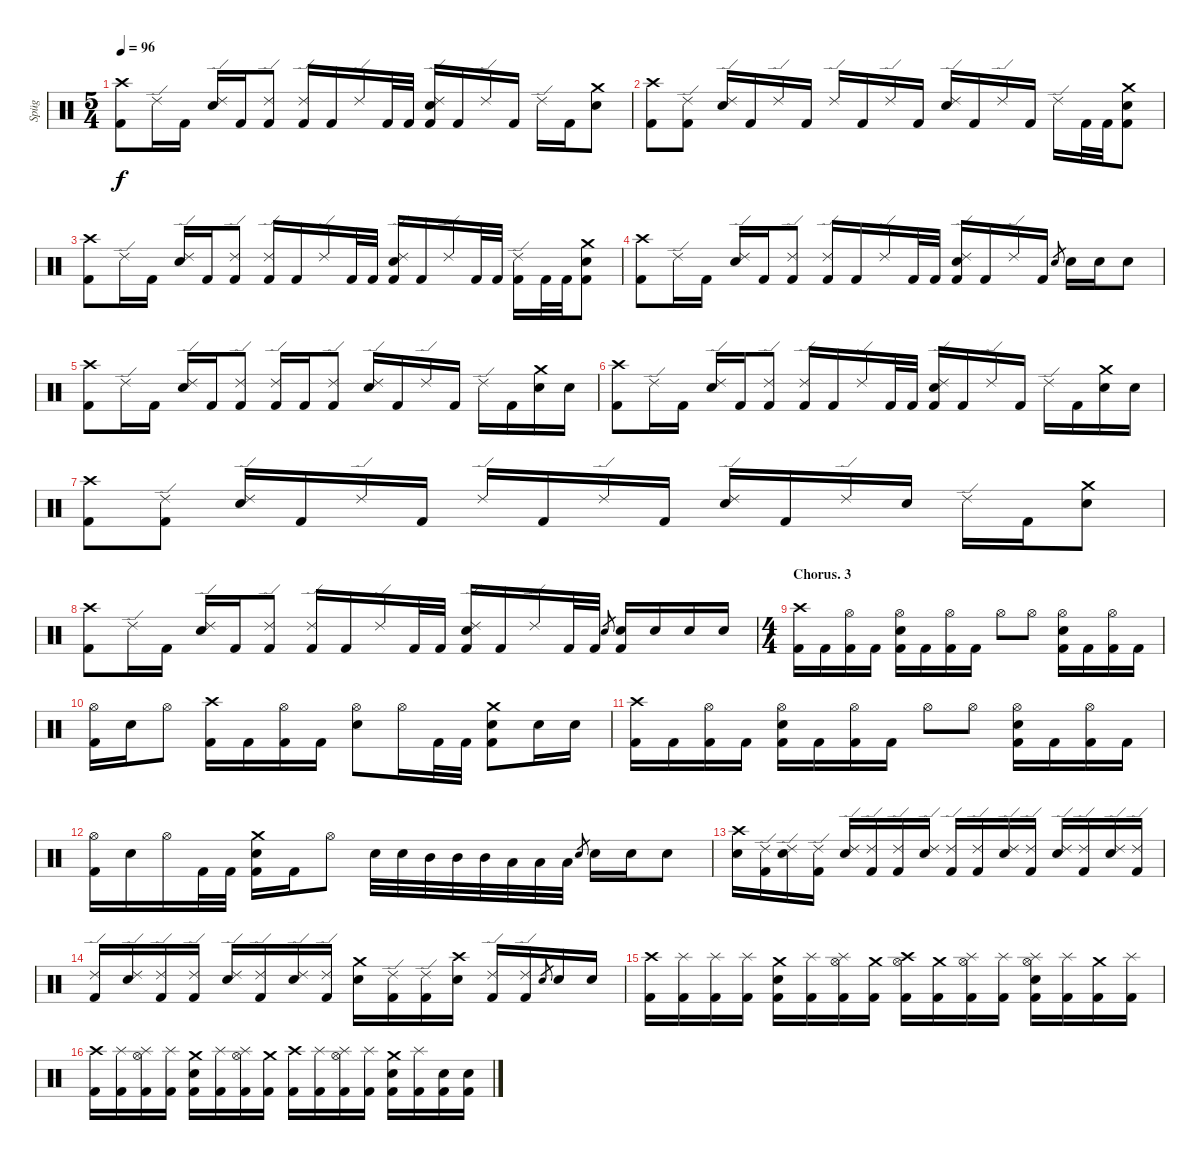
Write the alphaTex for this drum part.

\track ("Spüg" "Spüg") {instrument percussion}
\staff {score}
\articulation defaults
\ts (5 4)
\tempo 96
\clef neutral
\ks c
("Crash high (hit)" "Kick (hit) 2").8{dy f} "Ride (edge) 2".16 "Kick (hit) 2".16 ("Ride (edge) 2" "Electric Snare (hit)").16 "Kick (hit) 2".16 ("Ride (edge) 2" "Kick (hit) 2").8 ("Ride (edge) 2" "Kick (hit) 2").16 "Kick (hit) 2".16 "Ride (edge) 2".16 "Kick (hit) 2".32 "Kick (hit) 2".32 ("Ride (edge) 2" "Electric Snare (hit)" "Kick (hit) 2").16 "Kick (hit) 2".16 "Ride (edge) 2".16 "Kick (hit) 2".16 "Ride (edge) 2".16 "Kick (hit) 2".16 ("Crash medium (hit)" "Electric Snare (hit)").8 |
("Crash high (hit)" "Kick (hit) 2").8 ("Ride (edge) 2" "Kick (hit) 2").8 ("Ride (edge) 2" "Electric Snare (hit)").16 "Kick (hit) 2".16 "Ride (edge) 2".16 "Kick (hit) 2".16 "Ride (edge) 2".16 "Kick (hit) 2".16 "Ride (edge) 2".16 "Kick (hit) 2".16 ("Ride (edge) 2" "Electric Snare (hit)").16 "Kick (hit) 2".16 "Ride (edge) 2".16 "Kick (hit) 2".16 "Ride (edge) 2".16 "Kick (hit) 2".32 "Kick (hit) 2".32 ("Crash medium (hit)" "Electric Snare (hit)" "Kick (hit) 2").8 |
("Crash high (hit)" "Kick (hit) 2").8 "Ride (edge) 2".16 "Kick (hit) 2".16 ("Ride (edge) 2" "Electric Snare (hit)").16 "Kick (hit) 2".16 ("Ride (edge) 2" "Kick (hit) 2").8 ("Ride (edge) 2" "Kick (hit) 2").16 "Kick (hit) 2".16 "Ride (edge) 2".16 "Kick (hit) 2".32 "Kick (hit) 2".32 ("Ride (edge) 2" "Electric Snare (hit)" "Kick (hit) 2").16 "Kick (hit) 2".16 "Ride (edge) 2".16 "Kick (hit) 2".32 "Kick (hit) 2".32 ("Ride (edge) 2" "Kick (hit) 2").16 "Kick (hit) 2".32 "Kick (hit) 2".32 ("Crash medium (hit)" "Electric Snare (hit)" "Kick (hit) 2").8 |
("Crash high (hit)" "Kick (hit) 2").8 "Ride (edge) 2".16 "Kick (hit) 2".16 ("Ride (edge) 2" "Electric Snare (hit)").16 "Kick (hit) 2".16 ("Ride (edge) 2" "Kick (hit) 2").8 ("Ride (edge) 2" "Kick (hit) 2").16 "Kick (hit) 2".16 "Ride (edge) 2".16 "Kick (hit) 2".32 "Kick (hit) 2".32 ("Ride (edge) 2" "Electric Snare (hit)" "Kick (hit) 2").16 "Kick (hit) 2".16 "Ride (edge) 2".16 "Kick (hit) 2".16 "Electric Snare (hit)".8{gr} "Electric Snare (hit)".16 "Electric Snare (hit)".16 "Electric Snare (hit)".8 |
("Crash high (hit)" "Kick (hit) 2").8 "Ride (edge) 2".16 "Kick (hit) 2".16 ("Ride (edge) 2" "Electric Snare (hit)").16 "Kick (hit) 2".16 ("Ride (edge) 2" "Kick (hit) 2").8 ("Ride (edge) 2" "Kick (hit) 2").16 "Kick (hit) 2".16 ("Ride (edge) 2" "Kick (hit) 2").8 ("Ride (edge) 2" "Electric Snare (hit)").16 "Kick (hit) 2".16 "Ride (edge) 2".16 "Kick (hit) 2".16 "Ride (edge) 2".16 "Kick (hit) 2".16 ("Crash medium (hit)" "Electric Snare (hit)").16 "Electric Snare (hit)".16 |
("Crash high (hit)" "Kick (hit) 2").8 "Ride (edge) 2".16 "Kick (hit) 2".16 ("Ride (edge) 2" "Electric Snare (hit)").16 "Kick (hit) 2".16 ("Ride (edge) 2" "Kick (hit) 2").8 ("Ride (edge) 2" "Kick (hit) 2").16 "Kick (hit) 2".16 "Ride (edge) 2".16 "Kick (hit) 2".32 "Kick (hit) 2".32 ("Ride (edge) 2" "Electric Snare (hit)" "Kick (hit) 2").16 "Kick (hit) 2".16 "Ride (edge) 2".16 "Kick (hit) 2".16 "Ride (edge) 2".16 "Kick (hit) 2".16 ("Crash medium (hit)" "Electric Snare (hit)").16 "Electric Snare (hit)".16 |
("Crash high (hit)" "Kick (hit) 2").8 ("Ride (edge) 2" "Kick (hit) 2").8 ("Ride (edge) 2" "Electric Snare (hit)").16 "Kick (hit) 2".16 "Ride (edge) 2".16 "Kick (hit) 2".16 "Ride (edge) 2".16 "Kick (hit) 2".16 "Ride (edge) 2".16 "Kick (hit) 2".16 ("Ride (edge) 2" "Electric Snare (hit)").16 "Kick (hit) 2".16 "Ride (edge) 2".16 "Electric Snare (hit)".16 "Ride (edge) 2".16 "Kick (hit) 2".16 ("Crash medium (hit)" "Electric Snare (hit)").8 |
("Crash high (hit)" "Kick (hit) 2").8 "Ride (edge) 2".16 "Kick (hit) 2".16 ("Ride (edge) 2" "Electric Snare (hit)").16 "Kick (hit) 2".16 ("Ride (edge) 2" "Kick (hit) 2").8 ("Ride (edge) 2" "Kick (hit) 2").16 "Kick (hit) 2".16 "Ride (edge) 2".16 "Kick (hit) 2".32 "Kick (hit) 2".32 ("Ride (edge) 2" "Electric Snare (hit)" "Kick (hit) 2").16 "Kick (hit) 2".16 "Ride (edge) 2".16 "Kick (hit) 2".32 "Kick (hit) 2".32 "Electric Snare (hit)".8{gr} ("Electric Snare (hit)" "Kick (hit) 2").16 "Electric Snare (hit)".16 "Electric Snare (hit)".16 "Electric Snare (hit)".16 |
\ts (4 4)
\section ("" "Chorus. 3")
("Crash high (hit)" "Kick (hit) 2").16 "Kick (hit) 2".16 ("Hi-Hat (open)" "Kick (hit) 2").16 "Kick (hit) 2".16 ("Hi-Hat (open)" "Electric Snare (hit)" "Kick (hit) 2").16 "Kick (hit) 2".16 ("Hi-Hat (open)" "Kick (hit) 2").16 "Kick (hit) 2".16 "Hi-Hat (open)".8 "Hi-Hat (open)".8 ("Hi-Hat (open)" "Electric Snare (hit)" "Kick (hit) 2").16 "Kick (hit) 2".16 ("Hi-Hat (open)" "Kick (hit) 2").16 "Kick (hit) 2".16 |
("Hi-Hat (open)" "Kick (hit) 2").16 "Electric Snare (hit)".16 "Hi-Hat (open)".8 ("Crash high (hit)" "Kick (hit) 2").16 "Kick (hit) 2".16 ("Hi-Hat (open)" "Kick (hit) 2").16 "Kick (hit) 2".16 ("Hi-Hat (open)" "Electric Snare (hit)").8 "Hi-Hat (open)".16 "Kick (hit) 2".32 "Kick (hit) 2".32 ("Crash medium (hit)" "Electric Snare (hit)" "Kick (hit) 2").8 "Electric Snare (hit)".16 "Electric Snare (hit)".16 |
("Crash high (hit)" "Kick (hit) 2").16 "Kick (hit) 2".16 ("Hi-Hat (open)" "Kick (hit) 2").16 "Kick (hit) 2".16 ("Hi-Hat (open)" "Electric Snare (hit)" "Kick (hit) 2").16 "Kick (hit) 2".16 ("Hi-Hat (open)" "Kick (hit) 2").16 "Kick (hit) 2".16 "Hi-Hat (open)".8 "Hi-Hat (open)".8 ("Hi-Hat (open)" "Electric Snare (hit)" "Kick (hit) 2").16 "Kick (hit) 2".16 ("Hi-Hat (open)" "Kick (hit) 2").16 "Kick (hit) 2".16 |
("Hi-Hat (open)" "Kick (hit) 2").16 "Electric Snare (hit)".16 "Hi-Hat (open)".16 "Kick (hit) 2".32 "Kick (hit) 2".32 ("Crash medium (hit)" "Electric Snare (hit)" "Kick (hit) 2").16 "Kick (hit) 2".16 "Hi-Hat (open)".8 "Electric Snare (hit)".32 "Electric Snare (hit)".32 "Mid Tom (hit)".32 "Mid Tom (hit)".32 "Mid Tom (hit)".32 "Low Floor Tom (hit)".32 "Low Floor Tom (hit)".32 "Low Floor Tom (hit)".32 "Electric Snare (hit)".8{gr} "Electric Snare (hit)".16 "Electric Snare (hit)".16 "Electric Snare (hit)".8 |
("Crash high (hit)" "Electric Snare (hit)").16 ("Ride (edge) 2" "Kick (hit) 2").16 ("Ride (edge) 2" "Electric Snare (hit)").16 ("Ride (edge) 2" "Kick (hit) 2").16 ("Ride (edge) 2" "Electric Snare (hit)").16 ("Ride (edge) 2" "Kick (hit) 2").16 ("Ride (edge) 2" "Kick (hit) 2").16 ("Ride (edge) 2" "Electric Snare (hit)").16 ("Ride (edge) 2" "Kick (hit) 2").16 ("Ride (edge) 2" "Kick (hit) 2").16 ("Ride (edge) 2" "Electric Snare (hit)").16 ("Ride (edge) 2" "Kick (hit) 2").16 ("Ride (edge) 2" "Electric Snare (hit)").16 ("Ride (edge) 2" "Kick (hit) 2").16 ("Ride (edge) 2" "Electric Snare (hit)").16 ("Ride (edge) 2" "Kick (hit) 2").16 |
("Ride (edge) 2" "Kick (hit) 2").16 ("Ride (edge) 2" "Electric Snare (hit)").16 ("Ride (edge) 2" "Kick (hit) 2").16 ("Ride (edge) 2" "Kick (hit) 2").16 ("Ride (edge) 2" "Electric Snare (hit)").16 ("Ride (edge) 2" "Kick (hit) 2").16 ("Ride (edge) 2" "Electric Snare (hit)").16 ("Ride (edge) 2" "Kick (hit) 2").16 ("Crash medium (hit)" "Electric Snare (hit)").16 ("Ride (edge) 2" "Kick (hit) 2").16 ("Ride (edge) 2" "Kick (hit) 2").16 ("Crash high (hit)" "Electric Snare (hit)").16 ("Ride (edge) 2" "Kick (hit) 2").16 ("Ride (edge) 2" "Kick (hit) 2").16 "Electric Snare (hit)".8{gr} "Electric Snare (hit)".16 "Electric Snare (hit)".16 |
("Crash high (hit)" "Kick (hit) 2").16 ("Splash (hit)" "Kick (hit) 2").16 ("Splash (hit)" "Kick (hit) 2").16 ("Splash (hit)" "Kick (hit) 2").16 ("Crash medium (hit)" "Electric Snare (hit)" "Kick (hit) 2").16 ("Splash (hit)" "Kick (hit) 2").16 ("Hi-Hat (open)" "Splash (hit)" "Kick (hit) 2").16 ("Crash medium (hit)" "Kick (hit) 2").16 ("Crash high (hit)" "Hi-Hat (open)" "Kick (hit) 2").16 ("Crash medium (hit)" "Kick (hit) 2").16 ("Hi-Hat (open)" "Splash (hit)" "Kick (hit) 2").16 ("Splash (hit)" "Kick (hit) 2").16 ("Hi-Hat (open)" "Splash (hit)" "Electric Snare (hit)" "Kick (hit) 2").16 ("Splash (hit)" "Kick (hit) 2").16 ("Crash medium (hit)" "Kick (hit) 2").16 ("Splash (hit)" "Kick (hit) 2").16 |
("Crash high (hit)" "Kick (hit) 2").16 ("Splash (hit)" "Kick (hit) 2").16 ("Hi-Hat (open)" "Splash (hit)" "Kick (hit) 2").16 ("Splash (hit)" "Kick (hit) 2").16 ("Crash medium (hit)" "Electric Snare (hit)" "Kick (hit) 2").16 ("Splash (hit)" "Kick (hit) 2").16 ("Hi-Hat (open)" "Splash (hit)" "Kick (hit) 2").16 ("Crash medium (hit)" "Kick (hit) 2").16 ("Crash high (hit)" "Kick (hit) 2").16 ("Splash (hit)" "Kick (hit) 2").16 ("Hi-Hat (open)" "Splash (hit)" "Kick (hit) 2").16 ("Splash (hit)" "Kick (hit) 2").16 ("Crash medium (hit)" "Electric Snare (hit)" "Kick (hit) 2").16 ("Splash (hit)" "Kick (hit) 2").16 ("Electric Snare (hit)" "Kick (hit) 2").16 ("Electric Snare (hit)" "Kick (hit) 2").16
